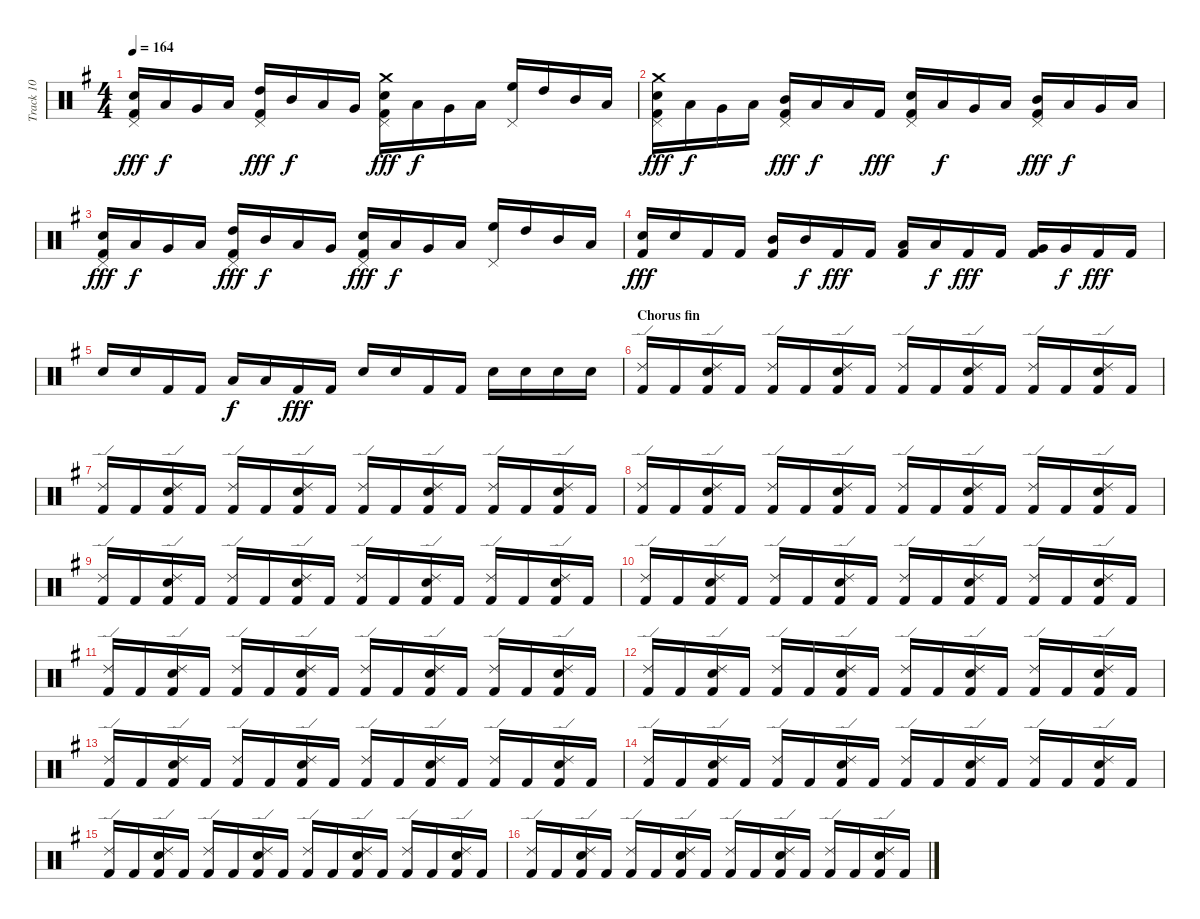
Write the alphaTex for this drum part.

\track ("Track 10" "Track 10") {instrument percussion}
\staff {score}
\articulation defaults
\ts (4 4)
\tempo 164
\clef neutral
\ks eminor
("Kick (hit) 2" "Electric Snare (hit)" "Pedal Hi-Hat (hit)").16{dy fff} "Low Floor Tom (hit)".16{dy f} "Very Low Tom (hit)".16 "Low Floor Tom (hit)".16 ("Kick (hit) 2" "High Tom (hit)" "Pedal Hi-Hat (hit)").16{dy fff} "Mid Tom (hit)".16{dy f} "Low Tom (hit)".16 "Very Low Tom (hit)".16 ("Electric Snare (hit)" "Kick (hit) 2" "Pedal Hi-Hat (hit)" "Crash medium (hit)").16{dy fff} "Low Floor Tom (hit)".16{dy f} "Very Low Tom (hit)".16 "Low Floor Tom (hit)".16 ("Pedal Hi-Hat (hit)" "High Floor Tom (hit)").16 "High Tom (hit)".16 "Mid Tom (hit)".16 "Low Tom (hit)".16 |
("Electric Snare (hit)" "Kick (hit) 2" "Pedal Hi-Hat (hit)" "Crash medium (hit)").16{dy fff} "Low Floor Tom (hit)".16{dy f} "Very Low Tom (hit)".16 "Low Floor Tom (hit)".16 ("Kick (hit) 2" "Pedal Hi-Hat (hit)" "Mid Tom (hit)").16{dy fff} "Low Tom (hit)".16{dy f} "Low Floor Tom (hit)".16 "Kick (hit) 2".16{dy fff} ("Electric Snare (hit)" "Kick (hit) 2" "Pedal Hi-Hat (hit)").16 "Low Floor Tom (hit)".16{dy f} "Very Low Tom (hit)".16 "Low Floor Tom (hit)".16 ("Kick (hit) 2" "Mid Tom (hit)" "Pedal Hi-Hat (hit)").16{dy fff} "Low Tom (hit)".16{dy f} "Very Low Tom (hit)".16 "Low Tom (hit)".16 |
("Kick (hit) 2" "Electric Snare (hit)" "Pedal Hi-Hat (hit)").16{dy fff} "Low Floor Tom (hit)".16{dy f} "Very Low Tom (hit)".16 "Low Floor Tom (hit)".16 ("Kick (hit) 2" "Pedal Hi-Hat (hit)" "High Tom (hit)").16{dy fff} "Mid Tom (hit)".16{dy f} "Low Tom (hit)".16 "Very Low Tom (hit)".16 ("Electric Snare (hit)" "Kick (hit) 2" "Pedal Hi-Hat (hit)").16{dy fff} "Low Floor Tom (hit)".16{dy f} "Very Low Tom (hit)".16 "Low Floor Tom (hit)".16 ("Pedal Hi-Hat (hit)" "High Floor Tom (hit)").16 "High Tom (hit)".16 "Mid Tom (hit)".16 "Low Tom (hit)".16 |
("Electric Snare (hit)" "Kick (hit) 2").16{dy fff} "Electric Snare (hit)".16 "Kick (hit) 2".16 "Kick (hit) 2".16 ("Kick (hit) 2" "Mid Tom (hit)").16 "Mid Tom (hit)".16{dy f} "Kick (hit) 2".16{dy fff} "Kick (hit) 2".16 ("Kick (hit) 2" "Low Tom (hit)").16 "Low Tom (hit)".16{dy f} "Kick (hit) 2".16{dy fff} "Kick (hit) 2".16 ("Kick (hit) 2" "Very Low Tom (hit)").16 "Very Low Tom (hit)".16{dy f} "Kick (hit) 2".16{dy fff} "Kick (hit) 2".16 |
"Electric Snare (hit)".16 "Electric Snare (hit)".16 "Kick (hit) 2".16 "Kick (hit) 2".16 "Low Tom (hit)".16{dy f} "Low Tom (hit)".16 "Kick (hit) 2".16{dy fff} "Kick (hit) 2".16 "Electric Snare (hit)".16 "Electric Snare (hit)".16 "Kick (hit) 2".16 "Kick (hit) 2".16 "Electric Snare (hit)".16 "Electric Snare (hit)".16 "Electric Snare (hit)".16 "Electric Snare (hit)".16 |
\section ("" "Chorus fin")
("Kick (hit) 2" "Ride (edge) 2").16 "Kick (hit) 2".16 ("Kick (hit) 2" "Electric Snare (hit)" "Ride (edge) 2").16 "Kick (hit) 2".16 ("Kick (hit) 2" "Ride (edge) 2").16 "Kick (hit) 2".16 ("Electric Snare (hit)" "Kick (hit) 2" "Ride (edge) 2").16 "Kick (hit) 2".16 ("Kick (hit) 2" "Ride (edge) 2").16 "Kick (hit) 2".16 ("Electric Snare (hit)" "Kick (hit) 2" "Ride (edge) 2").16 "Kick (hit) 2".16 ("Kick (hit) 2" "Ride (edge) 2").16 "Kick (hit) 2".16 ("Electric Snare (hit)" "Kick (hit) 2" "Ride (edge) 2").16 "Kick (hit) 2".16 |
("Kick (hit) 2" "Ride (edge) 2").16 "Kick (hit) 2".16 ("Kick (hit) 2" "Electric Snare (hit)" "Ride (edge) 2").16 "Kick (hit) 2".16 ("Kick (hit) 2" "Ride (edge) 2").16 "Kick (hit) 2".16 ("Kick (hit) 2" "Electric Snare (hit)" "Ride (edge) 2").16 "Kick (hit) 2".16 ("Kick (hit) 2" "Ride (edge) 2").16 "Kick (hit) 2".16 ("Kick (hit) 2" "Electric Snare (hit)" "Ride (edge) 2").16 "Kick (hit) 2".16 ("Kick (hit) 2" "Ride (edge) 2").16 "Kick (hit) 2".16 ("Electric Snare (hit)" "Kick (hit) 2" "Ride (edge) 2").16 "Kick (hit) 2".16 |
("Kick (hit) 2" "Ride (edge) 2").16 "Kick (hit) 2".16 ("Kick (hit) 2" "Electric Snare (hit)" "Ride (edge) 2").16 "Kick (hit) 2".16 ("Kick (hit) 2" "Ride (edge) 2").16 "Kick (hit) 2".16 ("Electric Snare (hit)" "Kick (hit) 2" "Ride (edge) 2").16 "Kick (hit) 2".16 ("Kick (hit) 2" "Ride (edge) 2").16 "Kick (hit) 2".16 ("Electric Snare (hit)" "Kick (hit) 2" "Ride (edge) 2").16 "Kick (hit) 2".16 ("Kick (hit) 2" "Ride (edge) 2").16 "Kick (hit) 2".16 ("Kick (hit) 2" "Electric Snare (hit)" "Ride (edge) 2").16 "Kick (hit) 2".16 |
("Kick (hit) 2" "Ride (edge) 2").16 "Kick (hit) 2".16 ("Electric Snare (hit)" "Kick (hit) 2" "Ride (edge) 2").16 "Kick (hit) 2".16 ("Kick (hit) 2" "Ride (edge) 2").16 "Kick (hit) 2".16 ("Electric Snare (hit)" "Kick (hit) 2" "Ride (edge) 2").16 "Kick (hit) 2".16 ("Kick (hit) 2" "Ride (edge) 2").16 "Kick (hit) 2".16 ("Kick (hit) 2" "Electric Snare (hit)" "Ride (edge) 2").16 "Kick (hit) 2".16 ("Kick (hit) 2" "Ride (edge) 2").16 "Kick (hit) 2".16 ("Kick (hit) 2" "Electric Snare (hit)" "Ride (edge) 2").16 "Kick (hit) 2".16 |
("Kick (hit) 2" "Ride (edge) 2").16 "Kick (hit) 2".16 ("Electric Snare (hit)" "Kick (hit) 2" "Ride (edge) 2").16 "Kick (hit) 2".16 ("Kick (hit) 2" "Ride (edge) 2").16 "Kick (hit) 2".16 ("Electric Snare (hit)" "Kick (hit) 2" "Ride (edge) 2").16 "Kick (hit) 2".16 ("Kick (hit) 2" "Ride (edge) 2").16 "Kick (hit) 2".16 ("Electric Snare (hit)" "Kick (hit) 2" "Ride (edge) 2").16 "Kick (hit) 2".16 ("Kick (hit) 2" "Ride (edge) 2").16 "Kick (hit) 2".16 ("Kick (hit) 2" "Electric Snare (hit)" "Ride (edge) 2").16 "Kick (hit) 2".16 |
("Kick (hit) 2" "Ride (edge) 2").16 "Kick (hit) 2".16 ("Electric Snare (hit)" "Kick (hit) 2" "Ride (edge) 2").16 "Kick (hit) 2".16 ("Kick (hit) 2" "Ride (edge) 2").16 "Kick (hit) 2".16 ("Electric Snare (hit)" "Kick (hit) 2" "Ride (edge) 2").16 "Kick (hit) 2".16 ("Kick (hit) 2" "Ride (edge) 2").16 "Kick (hit) 2".16 ("Electric Snare (hit)" "Kick (hit) 2" "Ride (edge) 2").16 "Kick (hit) 2".16 ("Kick (hit) 2" "Ride (edge) 2").16 "Kick (hit) 2".16 ("Kick (hit) 2" "Electric Snare (hit)" "Ride (edge) 2").16 "Kick (hit) 2".16 |
("Kick (hit) 2" "Ride (edge) 2").16 "Kick (hit) 2".16 ("Kick (hit) 2" "Electric Snare (hit)" "Ride (edge) 2").16 "Kick (hit) 2".16 ("Kick (hit) 2" "Ride (edge) 2").16 "Kick (hit) 2".16 ("Kick (hit) 2" "Electric Snare (hit)" "Ride (edge) 2").16 "Kick (hit) 2".16 ("Kick (hit) 2" "Ride (edge) 2").16 "Kick (hit) 2".16 ("Kick (hit) 2" "Electric Snare (hit)" "Ride (edge) 2").16 "Kick (hit) 2".16 ("Kick (hit) 2" "Ride (edge) 2").16 "Kick (hit) 2".16 ("Electric Snare (hit)" "Kick (hit) 2" "Ride (edge) 2").16 "Kick (hit) 2".16 |
("Kick (hit) 2" "Ride (edge) 2").16 "Kick (hit) 2".16 ("Kick (hit) 2" "Electric Snare (hit)" "Ride (edge) 2").16 "Kick (hit) 2".16 ("Kick (hit) 2" "Ride (edge) 2").16 "Kick (hit) 2".16 ("Kick (hit) 2" "Electric Snare (hit)" "Ride (edge) 2").16 "Kick (hit) 2".16 ("Kick (hit) 2" "Ride (edge) 2").16 "Kick (hit) 2".16 ("Kick (hit) 2" "Electric Snare (hit)" "Ride (edge) 2").16 "Kick (hit) 2".16 ("Kick (hit) 2" "Ride (edge) 2").16 "Kick (hit) 2".16 ("Electric Snare (hit)" "Kick (hit) 2" "Ride (edge) 2").16 "Kick (hit) 2".16 |
("Kick (hit) 2" "Ride (edge) 2").16 "Kick (hit) 2".16 ("Kick (hit) 2" "Electric Snare (hit)" "Ride (edge) 2").16 "Kick (hit) 2".16 ("Kick (hit) 2" "Ride (edge) 2").16 "Kick (hit) 2".16 ("Electric Snare (hit)" "Kick (hit) 2" "Ride (edge) 2").16 "Kick (hit) 2".16 ("Kick (hit) 2" "Ride (edge) 2").16 "Kick (hit) 2".16 ("Electric Snare (hit)" "Kick (hit) 2" "Ride (edge) 2").16 "Kick (hit) 2".16 ("Kick (hit) 2" "Ride (edge) 2").16 "Kick (hit) 2".16 ("Kick (hit) 2" "Electric Snare (hit)" "Ride (edge) 2").16 "Kick (hit) 2".16 |
("Kick (hit) 2" "Ride (edge) 2").16 "Kick (hit) 2".16 ("Kick (hit) 2" "Electric Snare (hit)" "Ride (edge) 2").16 "Kick (hit) 2".16 ("Kick (hit) 2" "Ride (edge) 2").16 "Kick (hit) 2".16 ("Kick (hit) 2" "Electric Snare (hit)" "Ride (edge) 2").16 "Kick (hit) 2".16 ("Kick (hit) 2" "Ride (edge) 2").16 "Kick (hit) 2".16 ("Kick (hit) 2" "Electric Snare (hit)" "Ride (edge) 2").16 "Kick (hit) 2".16 ("Kick (hit) 2" "Ride (edge) 2").16 "Kick (hit) 2".16 ("Electric Snare (hit)" "Kick (hit) 2" "Ride (edge) 2").16 "Kick (hit) 2".16 |
("Kick (hit) 2" "Ride (edge) 2").16 "Kick (hit) 2".16 ("Kick (hit) 2" "Electric Snare (hit)" "Ride (edge) 2").16 "Kick (hit) 2".16 ("Kick (hit) 2" "Ride (edge) 2").16 "Kick (hit) 2".16 ("Electric Snare (hit)" "Kick (hit) 2" "Ride (edge) 2").16 "Kick (hit) 2".16 ("Kick (hit) 2" "Ride (edge) 2").16 "Kick (hit) 2".16 ("Electric Snare (hit)" "Kick (hit) 2" "Ride (edge) 2").16 "Kick (hit) 2".16 ("Kick (hit) 2" "Ride (edge) 2").16 "Kick (hit) 2".16 ("Electric Snare (hit)" "Kick (hit) 2" "Ride (edge) 2").16 "Kick (hit) 2".16
